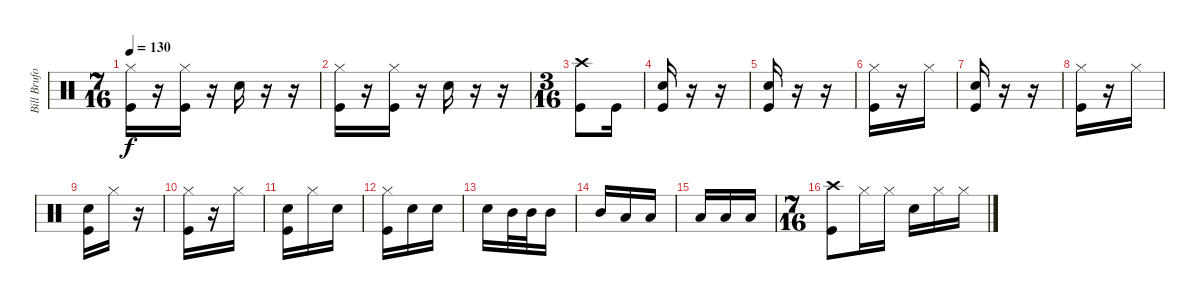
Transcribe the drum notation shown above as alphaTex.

\track ("Bill Bruford" "Bill Brufo") {instrument percussion}
\staff {score}
\articulation defaults
\ts (7 16)
\tempo 130
\clef neutral
\ks c
("Hi-Hat (closed)" "Kick (hit)").16{dy f} r.16 ("Hi-Hat (closed)" "Kick (hit)").16 r.16 "Snare (hit) 2".16 r.16 r.16 |
("Hi-Hat (closed)" "Kick (hit)").16 r.16 ("Hi-Hat (closed)" "Kick (hit)").16 r.16 "Snare (hit) 2".16 r.16 r.16 |
\ts (3 16)
("Crash high (hit)" "Kick (hit)").8 "Kick (hit)".16 |
("Snare (hit) 2" "Kick (hit)").16 r.16 r.16 |
("Snare (hit) 2" "Kick (hit)").16 r.16 r.16 |
("Hi-Hat (closed)" "Kick (hit)").16 r.16 "Hi-Hat (closed)".16 |
("Snare (hit) 2" "Kick (hit)").16 r.16 r.16 |
("Hi-Hat (closed)" "Kick (hit)").16 r.16 "Hi-Hat (closed)".16 |
("Snare (hit) 2" "Kick (hit)").16 "Hi-Hat (closed)".16 r.16 |
("Hi-Hat (closed)" "Kick (hit)").16 r.16 "Hi-Hat (closed)".16 |
("Snare (hit) 2" "Kick (hit)").16 "Hi-Hat (closed)".16 "Snare (hit) 2".16 |
("Hi-Hat (closed)" "Kick (hit)").16 "Snare (hit) 2".16 "Snare (hit) 2".16 |
"Snare (hit) 2".16 "Mid Tom (hit)".32 "Mid Tom (hit)".32 "Mid Tom (hit)".16 |
"Mid Tom (hit)".16 "Low Tom (hit)".16 "Low Tom (hit)".16 |
"Low Tom (hit)".16 "Low Tom (hit)".16 "Low Tom (hit)".16 |
\ts (7 16)
("Crash high (hit)" "Kick (hit)").8 "Hi-Hat (closed)".16 "Hi-Hat (closed)".16 "Snare (hit) 2".16 "Hi-Hat (closed)".16 "Hi-Hat (closed)".16
